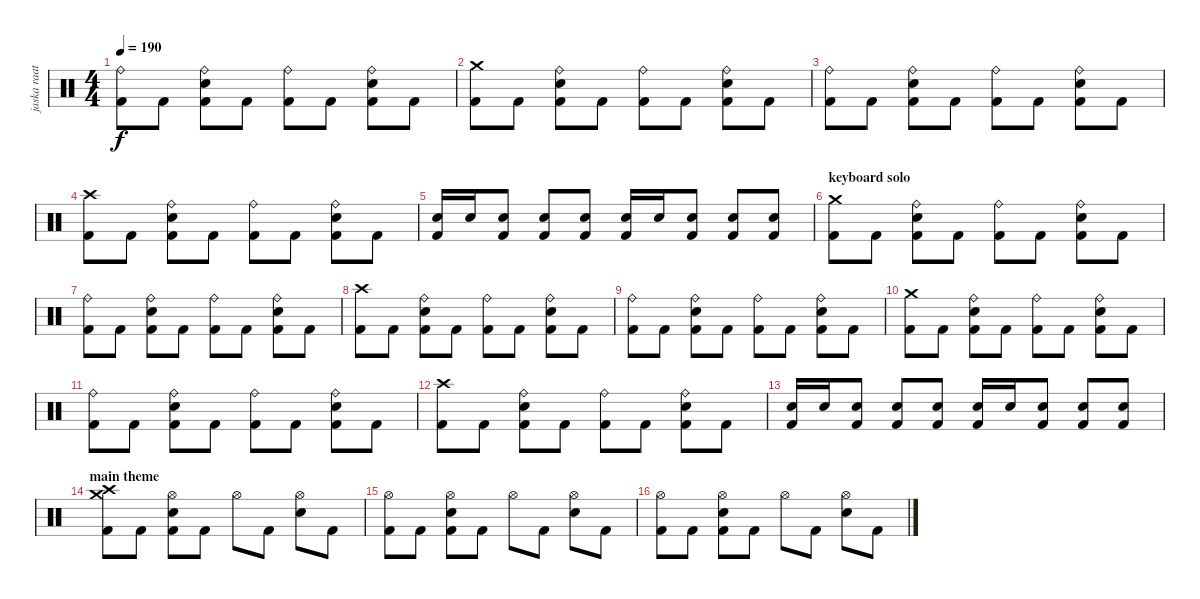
\track ("jaska raatikainen" "jaska raat") {instrument percussion}
\staff {score}
\articulation defaults
\ts (4 4)
\tempo 190
\clef neutral
\ks c
("Ride (bell)" "Kick (hit) 2").8{dy f} "Kick (hit) 2".8 ("Ride (bell)" "Snare (hit) 2" "Kick (hit) 2").8 "Kick (hit) 2".8 ("Ride (bell)" "Kick (hit) 2").8 "Kick (hit) 2".8 ("Ride (bell)" "Snare (hit) 2" "Kick (hit) 2").8 "Kick (hit) 2".8 |
("Crash medium (hit)" "Kick (hit) 2").8 "Kick (hit) 2".8 ("Ride (bell)" "Snare (hit) 2" "Kick (hit) 2").8 "Kick (hit) 2".8 ("Ride (bell)" "Kick (hit) 2").8 "Kick (hit) 2".8 ("Ride (bell)" "Snare (hit) 2" "Kick (hit) 2").8 "Kick (hit) 2".8 |
("Ride (bell)" "Kick (hit) 2").8 "Kick (hit) 2".8 ("Ride (bell)" "Snare (hit) 2" "Kick (hit) 2").8 "Kick (hit) 2".8 ("Ride (bell)" "Kick (hit) 2").8 "Kick (hit) 2".8 ("Ride (bell)" "Snare (hit) 2" "Kick (hit) 2").8 "Kick (hit) 2".8 |
("Crash high (hit)" "Kick (hit) 2").8 "Kick (hit) 2".8 ("Ride (bell)" "Snare (hit) 2" "Kick (hit) 2").8 "Kick (hit) 2".8 ("Ride (bell)" "Kick (hit) 2").8 "Kick (hit) 2".8 ("Ride (bell)" "Snare (hit) 2" "Kick (hit) 2").8 "Kick (hit) 2".8 |
("Snare (hit) 2" "Kick (hit) 2").16 "Snare (hit) 2".16 ("Snare (hit) 2" "Kick (hit) 2").8 ("Snare (hit) 2" "Kick (hit) 2").8 ("Snare (hit) 2" "Kick (hit) 2").8 ("Snare (hit) 2" "Kick (hit) 2").16 "Snare (hit) 2".16 ("Snare (hit) 2" "Kick (hit) 2").8 ("Snare (hit) 2" "Kick (hit) 2").8 ("Snare (hit) 2" "Kick (hit) 2").8 |
\section ("" "keyboard solo")
("Crash medium (hit)" "Kick (hit) 2").8 "Kick (hit) 2".8 ("Ride (bell)" "Snare (hit) 2" "Kick (hit) 2").8 "Kick (hit) 2".8 ("Ride (bell)" "Kick (hit) 2").8 "Kick (hit) 2".8 ("Ride (bell)" "Snare (hit) 2" "Kick (hit) 2").8 "Kick (hit) 2".8 |
("Ride (bell)" "Kick (hit) 2").8 "Kick (hit) 2".8 ("Ride (bell)" "Snare (hit) 2" "Kick (hit) 2").8 "Kick (hit) 2".8 ("Ride (bell)" "Kick (hit) 2").8 "Kick (hit) 2".8 ("Ride (bell)" "Snare (hit) 2" "Kick (hit) 2").8 "Kick (hit) 2".8 |
("Crash high (hit)" "Kick (hit) 2").8 "Kick (hit) 2".8 ("Ride (bell)" "Snare (hit) 2" "Kick (hit) 2").8 "Kick (hit) 2".8 ("Ride (bell)" "Kick (hit) 2").8 "Kick (hit) 2".8 ("Ride (bell)" "Snare (hit) 2" "Kick (hit) 2").8 "Kick (hit) 2".8 |
("Ride (bell)" "Kick (hit) 2").8 "Kick (hit) 2".8 ("Ride (bell)" "Snare (hit) 2" "Kick (hit) 2").8 "Kick (hit) 2".8 ("Ride (bell)" "Kick (hit) 2").8 "Kick (hit) 2".8 ("Ride (bell)" "Snare (hit) 2" "Kick (hit) 2").8 "Kick (hit) 2".8 |
("Crash medium (hit)" "Kick (hit) 2").8 "Kick (hit) 2".8 ("Ride (bell)" "Snare (hit) 2" "Kick (hit) 2").8 "Kick (hit) 2".8 ("Ride (bell)" "Kick (hit) 2").8 "Kick (hit) 2".8 ("Ride (bell)" "Snare (hit) 2" "Kick (hit) 2").8 "Kick (hit) 2".8 |
("Ride (bell)" "Kick (hit) 2").8 "Kick (hit) 2".8 ("Ride (bell)" "Snare (hit) 2" "Kick (hit) 2").8 "Kick (hit) 2".8 ("Ride (bell)" "Kick (hit) 2").8 "Kick (hit) 2".8 ("Ride (bell)" "Snare (hit) 2" "Kick (hit) 2").8 "Kick (hit) 2".8 |
("Crash high (hit)" "Kick (hit) 2").8 "Kick (hit) 2".8 ("Ride (bell)" "Snare (hit) 2" "Kick (hit) 2").8 "Kick (hit) 2".8 ("Ride (bell)" "Kick (hit) 2").8 "Kick (hit) 2".8 ("Ride (bell)" "Snare (hit) 2" "Kick (hit) 2").8 "Kick (hit) 2".8 |
("Snare (hit) 2" "Kick (hit) 2").16 "Snare (hit) 2".16 ("Snare (hit) 2" "Kick (hit) 2").8 ("Snare (hit) 2" "Kick (hit) 2").8 ("Snare (hit) 2" "Kick (hit) 2").8 ("Snare (hit) 2" "Kick (hit) 2").16 "Snare (hit) 2".16 ("Snare (hit) 2" "Kick (hit) 2").8 ("Snare (hit) 2" "Kick (hit) 2").8 ("Snare (hit) 2" "Kick (hit) 2").8 |
\section ("" "main theme")
("Crash medium (hit)" "Crash high (hit)" "Kick (hit) 2").8 "Kick (hit) 2".8 ("Hi-Hat (open)" "Snare (hit) 2" "Kick (hit) 2").8 "Kick (hit) 2".8 "Hi-Hat (open)".8 "Kick (hit) 2".8 ("Hi-Hat (open)" "Snare (hit) 2").8 "Kick (hit) 2".8 |
("Hi-Hat (open)" "Kick (hit) 2").8 "Kick (hit) 2".8 ("Hi-Hat (open)" "Snare (hit) 2" "Kick (hit) 2").8 "Kick (hit) 2".8 "Hi-Hat (open)".8 "Kick (hit) 2".8 ("Hi-Hat (open)" "Snare (hit) 2").8 "Kick (hit) 2".8 |
("Hi-Hat (open)" "Kick (hit) 2").8 "Kick (hit) 2".8 ("Hi-Hat (open)" "Snare (hit) 2" "Kick (hit) 2").8 "Kick (hit) 2".8 "Hi-Hat (open)".8 "Kick (hit) 2".8 ("Hi-Hat (open)" "Snare (hit) 2").8 "Kick (hit) 2".8
